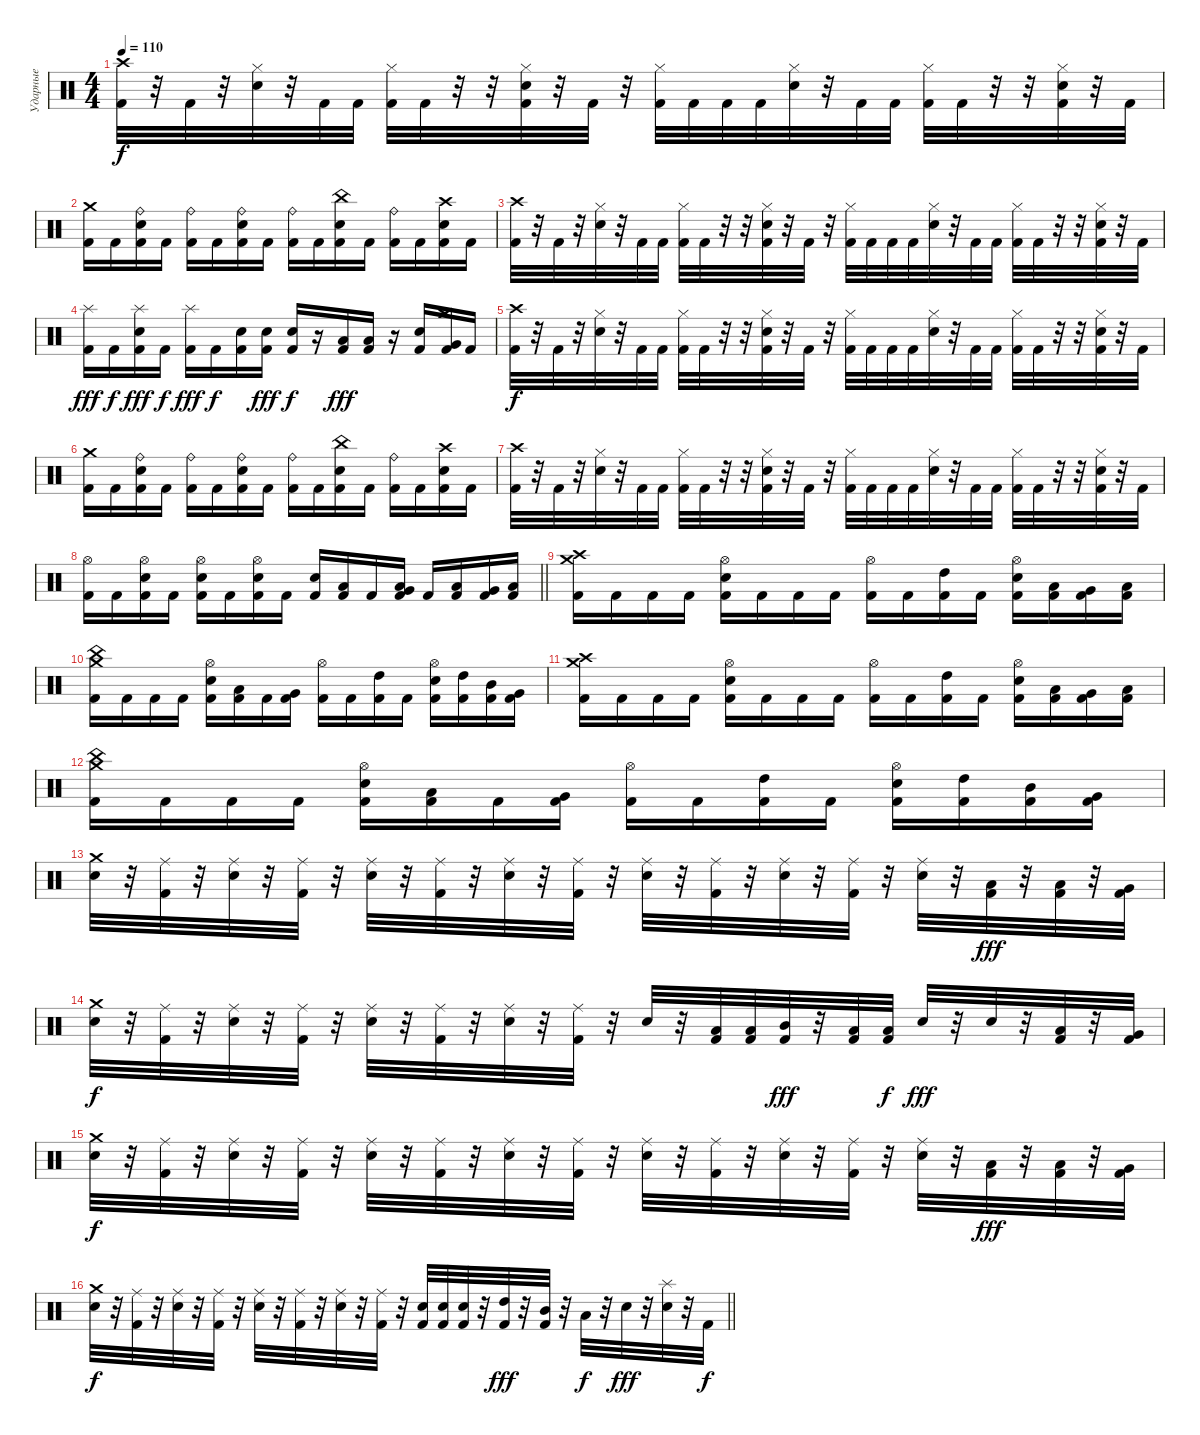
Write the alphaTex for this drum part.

\track ("Ударные" "Ударные") {instrument percussion}
\staff {score}
\articulation defaults
\ts (4 4)
\tempo 110
\clef neutral
\ks c
("Crash high (hit)" "Kick (hit) 2").32{dy f} r.32 "Kick (hit) 2".32 r.32 ("Hi-Hat (closed)" "Snare (hit) 2").32 r.32 "Kick (hit) 2".32 "Kick (hit) 2".32 ("Hi-Hat (closed)" "Kick (hit) 2").32 "Kick (hit) 2".32 r.32 r.32 ("Hi-Hat (closed)" "Snare (hit) 2" "Kick (hit) 2").32 r.32 "Kick (hit) 2".32 r.32 ("Hi-Hat (closed)" "Kick (hit) 2").32 "Kick (hit) 2".32 "Kick (hit) 2".32 "Kick (hit) 2".32 ("Hi-Hat (closed)" "Snare (hit) 2").32 r.32 "Kick (hit) 2".32 "Kick (hit) 2".32 ("Hi-Hat (closed)" "Kick (hit) 2").32 "Kick (hit) 2".32 r.32 r.32 ("Hi-Hat (closed)" "Snare (hit) 2" "Kick (hit) 2").32 r.32 "Kick (hit) 2".32 |
("Crash medium (hit)" "Kick (hit) 2").16 "Kick (hit) 2".16 ("Ride (bell)" "Snare (hit) 2" "Kick (hit) 2").16 "Kick (hit) 2".16 ("Ride (bell)" "Kick (hit) 2").16 "Kick (hit) 2".16 ("Ride (bell)" "Snare (hit) 2" "Kick (hit) 2").16 "Kick (hit) 2".16 ("Ride (bell)" "Kick (hit) 2").16 "Kick (hit) 2".16 ("China (hit)" "Snare (hit) 2" "Kick (hit) 2").16 "Kick (hit) 2".16 ("Ride (bell)" "Kick (hit) 2").16 "Kick (hit) 2".16 ("Crash high (hit)" "Snare (hit) 2" "Kick (hit) 2").16 "Kick (hit) 2".16 |
("Crash high (hit)" "Kick (hit) 2").32 r.32 "Kick (hit) 2".32 r.32 ("Hi-Hat (closed)" "Snare (hit) 2").32 r.32 "Kick (hit) 2".32 "Kick (hit) 2".32 ("Hi-Hat (closed)" "Kick (hit) 2").32 "Kick (hit) 2".32 r.32 r.32 ("Hi-Hat (closed)" "Snare (hit) 2" "Kick (hit) 2").32 r.32 "Kick (hit) 2".32 r.32 ("Hi-Hat (closed)" "Kick (hit) 2").32 "Kick (hit) 2".32 "Kick (hit) 2".32 "Kick (hit) 2".32 ("Hi-Hat (closed)" "Snare (hit) 2").32 r.32 "Kick (hit) 2".32 "Kick (hit) 2".32 ("Hi-Hat (closed)" "Kick (hit) 2").32 "Kick (hit) 2".32 r.32 r.32 ("Hi-Hat (closed)" "Snare (hit) 2" "Kick (hit) 2").32 r.32 "Kick (hit) 2".32 |
("Splash (hit)" "Kick (hit) 2").16{dy fff} "Kick (hit) 2".16{dy f} ("Splash (hit)" "Snare (hit) 2" "Kick (hit) 2").16{dy fff} "Kick (hit) 2".16{dy f} ("Splash (hit)" "Kick (hit) 2").16{dy fff} "Kick (hit) 2".16{dy f} ("Snare (hit) 2" "Kick (hit) 2").16 ("Snare (hit) 2" "Kick (hit) 2").16{dy fff} ("Snare (hit) 2" "Kick (hit) 2").16{dy f} r.16 ("Low Floor Tom (hit)" "Kick (hit) 2").16{dy fff} ("Low Floor Tom (hit)" "Kick (hit) 2").16 r.16 ("Snare (hit) 2" "Kick (hit) 2").16 ("Crash medium (hit)" "Very Low Tom (hit)" "Kick (hit) 2").16 "Kick (hit) 2".16 |
("Crash high (hit)" "Kick (hit) 2").32{dy f} r.32 "Kick (hit) 2".32 r.32 ("Hi-Hat (closed)" "Snare (hit) 2").32 r.32 "Kick (hit) 2".32 "Kick (hit) 2".32 ("Hi-Hat (closed)" "Kick (hit) 2").32 "Kick (hit) 2".32 r.32 r.32 ("Hi-Hat (closed)" "Snare (hit) 2" "Kick (hit) 2").32 r.32 "Kick (hit) 2".32 r.32 ("Hi-Hat (closed)" "Kick (hit) 2").32 "Kick (hit) 2".32 "Kick (hit) 2".32 "Kick (hit) 2".32 ("Hi-Hat (closed)" "Snare (hit) 2").32 r.32 "Kick (hit) 2".32 "Kick (hit) 2".32 ("Hi-Hat (closed)" "Kick (hit) 2").32 "Kick (hit) 2".32 r.32 r.32 ("Hi-Hat (closed)" "Snare (hit) 2" "Kick (hit) 2").32 r.32 "Kick (hit) 2".32 |
("Crash medium (hit)" "Kick (hit) 2").16 "Kick (hit) 2".16 ("Ride (bell)" "Snare (hit) 2" "Kick (hit) 2").16 "Kick (hit) 2".16 ("Ride (bell)" "Kick (hit) 2").16 "Kick (hit) 2".16 ("Ride (bell)" "Snare (hit) 2" "Kick (hit) 2").16 "Kick (hit) 2".16 ("Ride (bell)" "Kick (hit) 2").16 "Kick (hit) 2".16 ("China (hit)" "Snare (hit) 2" "Kick (hit) 2").16 "Kick (hit) 2".16 ("Ride (bell)" "Kick (hit) 2").16 "Kick (hit) 2".16 ("Crash high (hit)" "Snare (hit) 2" "Kick (hit) 2").16 "Kick (hit) 2".16 |
("Crash high (hit)" "Kick (hit) 2").32 r.32 "Kick (hit) 2".32 r.32 ("Hi-Hat (closed)" "Snare (hit) 2").32 r.32 "Kick (hit) 2".32 "Kick (hit) 2".32 ("Hi-Hat (closed)" "Kick (hit) 2").32 "Kick (hit) 2".32 r.32 r.32 ("Hi-Hat (closed)" "Snare (hit) 2" "Kick (hit) 2").32 r.32 "Kick (hit) 2".32 r.32 ("Hi-Hat (closed)" "Kick (hit) 2").32 "Kick (hit) 2".32 "Kick (hit) 2".32 "Kick (hit) 2".32 ("Hi-Hat (closed)" "Snare (hit) 2").32 r.32 "Kick (hit) 2".32 "Kick (hit) 2".32 ("Hi-Hat (closed)" "Kick (hit) 2").32 "Kick (hit) 2".32 r.32 r.32 ("Hi-Hat (closed)" "Snare (hit) 2" "Kick (hit) 2").32 r.32 "Kick (hit) 2".32 |
\barLineRight lightlight
("Hi-Hat (open)" "Kick (hit) 2").16 "Kick (hit) 2".16 ("Hi-Hat (open)" "Snare (hit) 2" "Kick (hit) 2").16 "Kick (hit) 2".16 ("Hi-Hat (open)" "Snare (hit) 2" "Kick (hit) 2").16 "Kick (hit) 2".16 ("Hi-Hat (open)" "Snare (hit) 2" "Kick (hit) 2").16 "Kick (hit) 2".16 ("Snare (hit) 2" "Kick (hit) 2").16 ("Low Tom (hit)" "Kick (hit) 2").16 "Kick (hit) 2".16 ("Low Tom (hit)" "Very Low Tom (hit)" "Kick (hit) 2").16 "Kick (hit) 2".16 ("Low Floor Tom (hit)" "Kick (hit) 2").16 ("Very Low Tom (hit)" "Kick (hit) 2").16 ("Low Tom (hit)" "Kick (hit) 2").16 |
("Crash medium (hit)" "Crash high (hit)" "Kick (hit) 2").16 "Kick (hit) 2".16 "Kick (hit) 2".16 "Kick (hit) 2".16 ("Hi-Hat (open)" "Snare (hit) 2" "Kick (hit) 2").16 "Kick (hit) 2".16 "Kick (hit) 2".16 "Kick (hit) 2".16 ("Hi-Hat (open)" "Kick (hit) 2").16 "Kick (hit) 2".16 ("High Tom (hit)" "Kick (hit) 2").16 "Kick (hit) 2".16 ("Hi-Hat (open)" "Snare (hit) 2" "Kick (hit) 2").16 ("Low Tom (hit)" "Kick (hit) 2").16 ("Very Low Tom (hit)" "Kick (hit) 2").16 ("Low Floor Tom (hit)" "Kick (hit) 2").16 |
("Crash medium (hit)" "China (hit)" "Kick (hit) 2").16 "Kick (hit) 2".16 "Kick (hit) 2".16 "Kick (hit) 2".16 ("Hi-Hat (open)" "Snare (hit) 2" "Kick (hit) 2").16 ("Low Tom (hit)" "Kick (hit) 2").16 "Kick (hit) 2".16 ("Very Low Tom (hit)" "Kick (hit) 2").16 ("Hi-Hat (open)" "Kick (hit) 2").16 "Kick (hit) 2".16 ("High Tom (hit)" "Kick (hit) 2").16 "Kick (hit) 2".16 ("Hi-Hat (open)" "Snare (hit) 2" "Kick (hit) 2").16 ("High Tom (hit)" "Kick (hit) 2").16 ("Mid Tom (hit)" "Kick (hit) 2").16 ("Very Low Tom (hit)" "Kick (hit) 2").16 |
("Crash medium (hit)" "Crash high (hit)" "Kick (hit) 2").16 "Kick (hit) 2".16 "Kick (hit) 2".16 "Kick (hit) 2".16 ("Hi-Hat (open)" "Snare (hit) 2" "Kick (hit) 2").16 "Kick (hit) 2".16 "Kick (hit) 2".16 "Kick (hit) 2".16 ("Hi-Hat (open)" "Kick (hit) 2").16 "Kick (hit) 2".16 ("High Tom (hit)" "Kick (hit) 2").16 "Kick (hit) 2".16 ("Hi-Hat (open)" "Snare (hit) 2" "Kick (hit) 2").16 ("Low Tom (hit)" "Kick (hit) 2").16 ("Very Low Tom (hit)" "Kick (hit) 2").16 ("Low Floor Tom (hit)" "Kick (hit) 2").16 |
("Crash medium (hit)" "China (hit)" "Kick (hit) 2").16 "Kick (hit) 2".16 "Kick (hit) 2".16 "Kick (hit) 2".16 ("Hi-Hat (open)" "Snare (hit) 2" "Kick (hit) 2").16 ("Low Tom (hit)" "Kick (hit) 2").16 "Kick (hit) 2".16 ("Very Low Tom (hit)" "Kick (hit) 2").16 ("Hi-Hat (open)" "Kick (hit) 2").16 "Kick (hit) 2".16 ("High Tom (hit)" "Kick (hit) 2").16 "Kick (hit) 2".16 ("Hi-Hat (open)" "Snare (hit) 2" "Kick (hit) 2").16 ("High Tom (hit)" "Kick (hit) 2").16 ("Mid Tom (hit)" "Kick (hit) 2").16 ("Very Low Tom (hit)" "Kick (hit) 2").16 |
("Crash medium (hit)" "Snare (hit) 2").32 r.32 ("Ride (middle)" "Kick (hit) 2").32 r.32 ("Ride (middle)" "Snare (hit) 2").32 r.32 ("Ride (middle)" "Kick (hit) 2").32 r.32 ("Ride (middle)" "Snare (hit) 2").32 r.32 ("Ride (middle)" "Kick (hit) 2").32 r.32 ("Ride (middle)" "Snare (hit) 2").32 r.32 ("Ride (middle)" "Kick (hit) 2").32 r.32 ("Ride (middle)" "Snare (hit) 2").32 r.32 ("Ride (middle)" "Kick (hit) 2").32 r.32 ("Ride (middle)" "Snare (hit) 2").32 r.32 ("Ride (middle)" "Kick (hit) 2").32 r.32 ("Ride (middle)" "Snare (hit) 2").32 r.32 ("Low Floor Tom (hit)" "Kick (hit) 2").32{dy fff} r.32 ("Low Tom (hit)" "Kick (hit) 2").32 r.32 ("Very Low Tom (hit)" "Kick (hit) 2").32 |
("Crash medium (hit)" "Snare (hit) 2").32{dy f} r.32 ("Ride (middle)" "Kick (hit) 2").32 r.32 ("Ride (middle)" "Snare (hit) 2").32 r.32 ("Ride (middle)" "Kick (hit) 2").32 r.32 ("Ride (middle)" "Snare (hit) 2").32 r.32 ("Ride (middle)" "Kick (hit) 2").32 r.32 ("Ride (middle)" "Snare (hit) 2").32 r.32 ("Ride (middle)" "Kick (hit) 2").32 r.32 "Snare (hit) 2".32 r.32 ("Low Tom (hit)" "Kick (hit) 2").32 ("Low Tom (hit)" "Kick (hit) 2").32 ("Mid Tom (hit)" "Kick (hit) 2").32{dy fff} r.32 ("Low Tom (hit)" "Kick (hit) 2").32 ("Low Tom (hit)" "Kick (hit) 2").32{dy f} "Snare (hit) 2".32{dy fff} r.32 "Snare (hit) 2".32 r.32 ("Low Tom (hit)" "Kick (hit) 2").32 r.32 ("Very Low Tom (hit)" "Kick (hit) 2").32 |
("Crash medium (hit)" "Snare (hit) 2").32{dy f} r.32 ("Ride (middle)" "Kick (hit) 2").32 r.32 ("Ride (middle)" "Snare (hit) 2").32 r.32 ("Ride (middle)" "Kick (hit) 2").32 r.32 ("Ride (middle)" "Snare (hit) 2").32 r.32 ("Ride (middle)" "Kick (hit) 2").32 r.32 ("Ride (middle)" "Snare (hit) 2").32 r.32 ("Ride (middle)" "Kick (hit) 2").32 r.32 ("Ride (middle)" "Snare (hit) 2").32 r.32 ("Ride (middle)" "Kick (hit) 2").32 r.32 ("Ride (middle)" "Snare (hit) 2").32 r.32 ("Ride (middle)" "Kick (hit) 2").32 r.32 ("Ride (middle)" "Snare (hit) 2").32 r.32 ("Low Floor Tom (hit)" "Kick (hit) 2").32{dy fff} r.32 ("Low Tom (hit)" "Kick (hit) 2").32 r.32 ("Very Low Tom (hit)" "Kick (hit) 2").32 |
\barLineRight lightlight
("Crash medium (hit)" "Snare (hit) 2").32{dy f} r.32 ("Ride (middle)" "Kick (hit) 2").32 r.32 ("Ride (middle)" "Snare (hit) 2").32 r.32 ("Ride (middle)" "Kick (hit) 2").32 r.32 ("Ride (middle)" "Snare (hit) 2").32 r.32 ("Ride (middle)" "Kick (hit) 2").32 r.32 ("Ride (middle)" "Snare (hit) 2").32 r.32 ("Ride (middle)" "Kick (hit) 2").32 r.32 ("Snare (hit) 2" "Kick (hit) 2").32 ("Snare (hit) 2" "Kick (hit) 2").32 ("Snare (hit) 2" "Kick (hit) 2").32 r.32 ("High Tom (hit)" "Kick (hit) 2").32{dy fff} r.32 ("Mid Tom (hit)" "Kick (hit) 2").32 r.32 "Low Tom (hit)".32{dy f} r.32 "Snare (hit) 2".32{dy fff} r.32 ("Splash (hit)" "Snare (hit) 2").32 r.32 "Kick (hit) 2".32{dy f}
